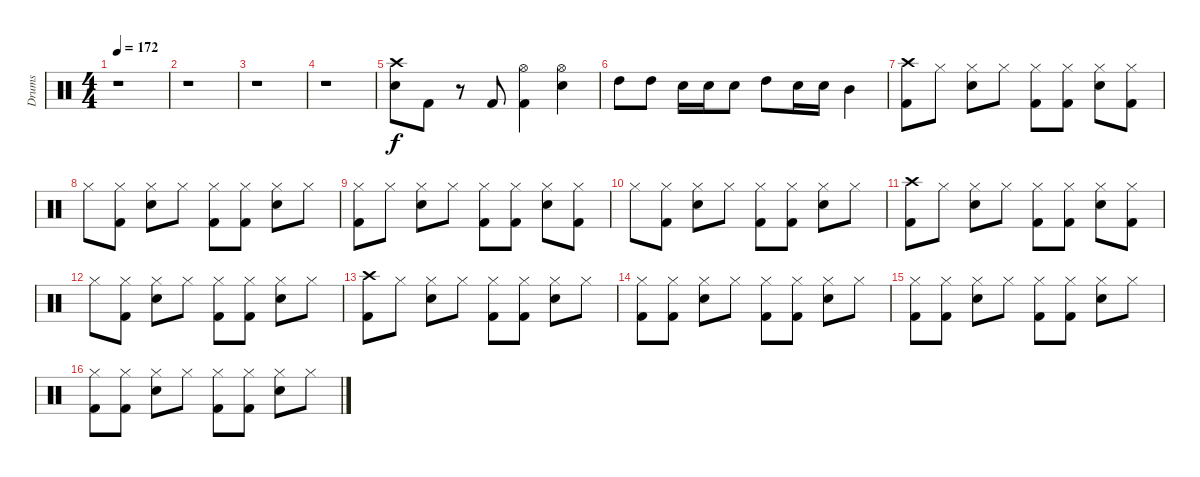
\track ("Drums" "Drums") {instrument percussion}
\staff {score}
\articulation defaults
\ts (4 4)
\tempo 172
\clef neutral
\ks c
r.1{dy f} |
r.1 |
r.1 |
r.1 |
("Crash high (hit)" "Electric Snare (hit)").8 "Kick (hit) 2".8 r.8 "Kick (hit) 2".8 ("Hi-Hat (open)" "Kick (hit) 2").4 ("Hi-Hat (open)" "Electric Snare (hit)").4 |
"High Tom (hit)".8 "High Tom (hit)".8 "Electric Snare (hit)".16 "Electric Snare (hit)".16 "Electric Snare (hit)".8 "High Tom (hit)".8 "Electric Snare (hit)".16 "Electric Snare (hit)".16 "Mid Tom (hit)".4 |
("Crash high (hit)" "Kick (hit) 2").8 "Hi-Hat (closed)".8 ("Hi-Hat (closed)" "Electric Snare (hit)").8 "Hi-Hat (closed)".8 ("Hi-Hat (closed)" "Kick (hit) 2").8 ("Hi-Hat (closed)" "Kick (hit) 2").8 ("Hi-Hat (closed)" "Electric Snare (hit)").8 ("Hi-Hat (closed)" "Kick (hit) 2").8 |
"Hi-Hat (closed)".8 ("Hi-Hat (closed)" "Kick (hit) 2").8 ("Hi-Hat (closed)" "Electric Snare (hit)").8 "Hi-Hat (closed)".8 ("Hi-Hat (closed)" "Kick (hit) 2").8 ("Hi-Hat (closed)" "Kick (hit) 2").8 ("Hi-Hat (closed)" "Electric Snare (hit)").8 "Hi-Hat (closed)".8 |
("Hi-Hat (closed)" "Kick (hit) 2").8 "Hi-Hat (closed)".8 ("Hi-Hat (closed)" "Electric Snare (hit)").8 "Hi-Hat (closed)".8 ("Hi-Hat (closed)" "Kick (hit) 2").8 ("Hi-Hat (closed)" "Kick (hit) 2").8 ("Hi-Hat (closed)" "Electric Snare (hit)").8 ("Hi-Hat (closed)" "Kick (hit) 2").8 |
"Hi-Hat (closed)".8 ("Hi-Hat (closed)" "Kick (hit) 2").8 ("Hi-Hat (closed)" "Electric Snare (hit)").8 "Hi-Hat (closed)".8 ("Hi-Hat (closed)" "Kick (hit) 2").8 ("Hi-Hat (closed)" "Kick (hit) 2").8 ("Hi-Hat (closed)" "Electric Snare (hit)").8 "Hi-Hat (closed)".8 |
("Crash high (hit)" "Kick (hit) 2").8 "Hi-Hat (closed)".8 ("Hi-Hat (closed)" "Electric Snare (hit)").8 "Hi-Hat (closed)".8 ("Hi-Hat (closed)" "Kick (hit) 2").8 ("Hi-Hat (closed)" "Kick (hit) 2").8 ("Hi-Hat (closed)" "Electric Snare (hit)").8 ("Hi-Hat (closed)" "Kick (hit) 2").8 |
"Hi-Hat (closed)".8 ("Hi-Hat (closed)" "Kick (hit) 2").8 ("Hi-Hat (closed)" "Electric Snare (hit)").8 "Hi-Hat (closed)".8 ("Hi-Hat (closed)" "Kick (hit) 2").8 ("Hi-Hat (closed)" "Kick (hit) 2").8 ("Hi-Hat (closed)" "Electric Snare (hit)").8 "Hi-Hat (closed)".8 |
("Crash high (hit)" "Kick (hit) 2").8 "Hi-Hat (closed)".8 ("Hi-Hat (closed)" "Electric Snare (hit)").8 "Hi-Hat (closed)".8 ("Hi-Hat (closed)" "Kick (hit) 2").8 ("Hi-Hat (closed)" "Kick (hit) 2").8 ("Hi-Hat (closed)" "Electric Snare (hit)").8 "Hi-Hat (closed)".8 |
("Hi-Hat (closed)" "Kick (hit) 2").8 ("Hi-Hat (closed)" "Kick (hit) 2").8 ("Hi-Hat (closed)" "Electric Snare (hit)").8 "Hi-Hat (closed)".8 ("Hi-Hat (closed)" "Kick (hit) 2").8 ("Hi-Hat (closed)" "Kick (hit) 2").8 ("Hi-Hat (closed)" "Electric Snare (hit)").8 "Hi-Hat (closed)".8 |
("Hi-Hat (closed)" "Kick (hit) 2").8 ("Hi-Hat (closed)" "Kick (hit) 2").8 ("Hi-Hat (closed)" "Electric Snare (hit)").8 "Hi-Hat (closed)".8 ("Hi-Hat (closed)" "Kick (hit) 2").8 ("Hi-Hat (closed)" "Kick (hit) 2").8 ("Hi-Hat (closed)" "Electric Snare (hit)").8 "Hi-Hat (closed)".8 |
("Hi-Hat (closed)" "Kick (hit) 2").8 ("Hi-Hat (closed)" "Kick (hit) 2").8 ("Hi-Hat (closed)" "Electric Snare (hit)").8 "Hi-Hat (closed)".8 ("Hi-Hat (closed)" "Kick (hit) 2").8 ("Hi-Hat (closed)" "Kick (hit) 2").8 ("Hi-Hat (closed)" "Electric Snare (hit)").8 "Hi-Hat (closed)".8
